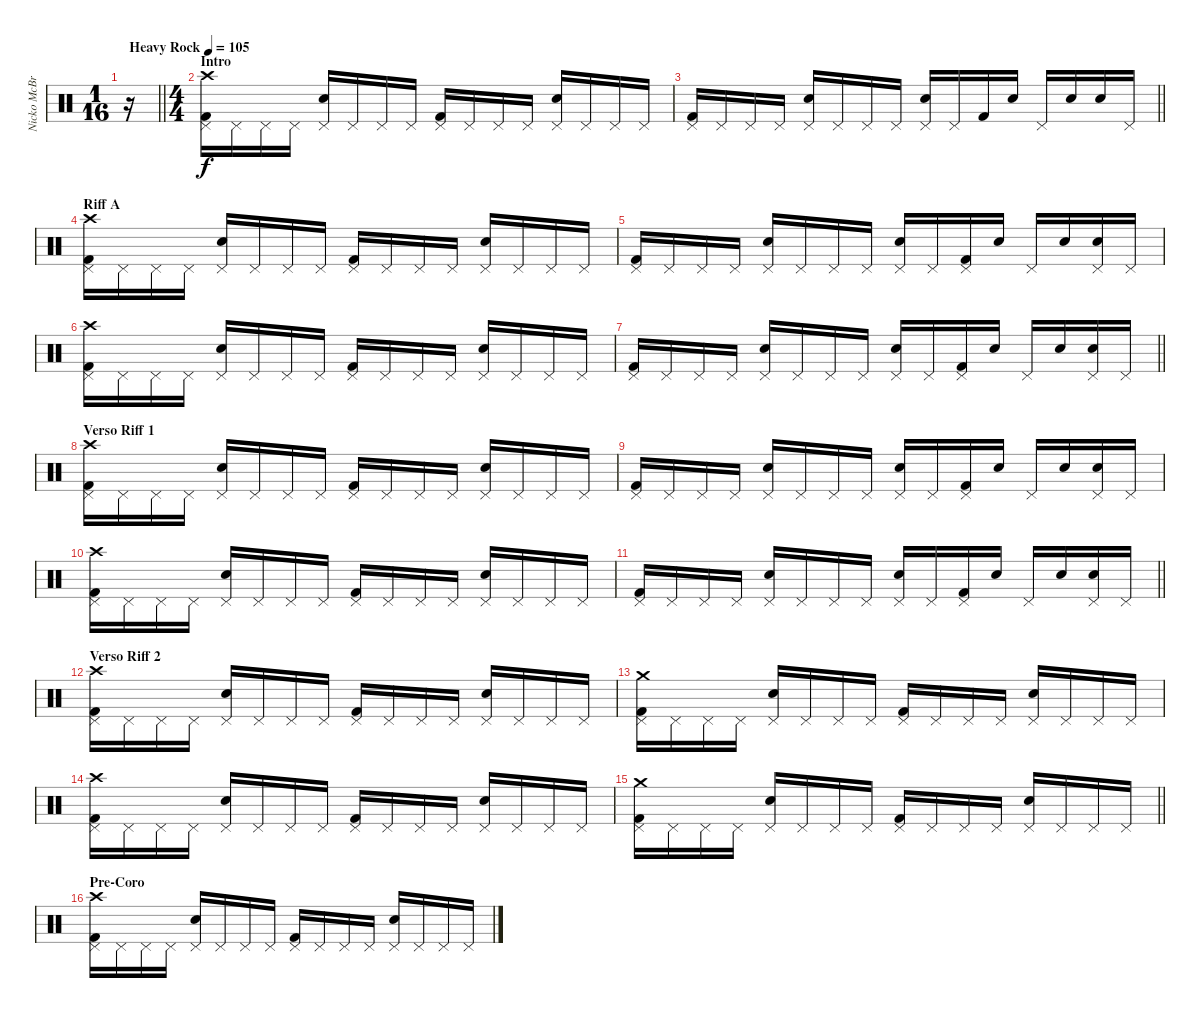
\track ("Nicko McBrain" "Nicko McBr") {instrument percussion}
\staff {score}
\articulation defaults
\ts (1 16)
\tempo (105 "Heavy Rock")
\clef neutral
\barLineRight lightlight
\ks c
r.16{dy f} |
\ts (4 4)
\section ("" "Intro")
("Kick (hit) 2" "Pedal Hi-Hat (hit)" "Crash high (hit)").16 "Pedal Hi-Hat (hit)".16 "Pedal Hi-Hat (hit)".16 "Pedal Hi-Hat (hit)".16 ("Snare (hit) 2" "Pedal Hi-Hat (hit)").16 "Pedal Hi-Hat (hit)".16 "Pedal Hi-Hat (hit)".16 "Pedal Hi-Hat (hit)".16 ("Kick (hit) 2" "Pedal Hi-Hat (hit)").16 "Pedal Hi-Hat (hit)".16 "Pedal Hi-Hat (hit)".16 "Pedal Hi-Hat (hit)".16 ("Snare (hit) 2" "Pedal Hi-Hat (hit)").16 "Pedal Hi-Hat (hit)".16 "Pedal Hi-Hat (hit)".16 "Pedal Hi-Hat (hit)".16 |
\barLineRight lightlight
("Kick (hit) 2" "Pedal Hi-Hat (hit)").16 "Pedal Hi-Hat (hit)".16 "Pedal Hi-Hat (hit)".16 "Pedal Hi-Hat (hit)".16 ("Snare (hit) 2" "Pedal Hi-Hat (hit)").16 "Pedal Hi-Hat (hit)".16 "Pedal Hi-Hat (hit)".16 "Pedal Hi-Hat (hit)".16 ("Snare (hit) 2" "Pedal Hi-Hat (hit)").16 "Pedal Hi-Hat (hit)".16 "Kick (hit) 2".16 "Snare (hit) 2".16 "Pedal Hi-Hat (hit)".16 "Snare (hit) 2".16 "Snare (hit) 2".16 "Pedal Hi-Hat (hit)".16 |
\section ("" "Riff A")
("Kick (hit) 2" "Pedal Hi-Hat (hit)" "Crash high (hit)").16 "Pedal Hi-Hat (hit)".16 "Pedal Hi-Hat (hit)".16 "Pedal Hi-Hat (hit)".16 ("Snare (hit) 2" "Pedal Hi-Hat (hit)").16 "Pedal Hi-Hat (hit)".16 "Pedal Hi-Hat (hit)".16 "Pedal Hi-Hat (hit)".16 ("Kick (hit) 2" "Pedal Hi-Hat (hit)").16 "Pedal Hi-Hat (hit)".16 "Pedal Hi-Hat (hit)".16 "Pedal Hi-Hat (hit)".16 ("Snare (hit) 2" "Pedal Hi-Hat (hit)").16 "Pedal Hi-Hat (hit)".16 "Pedal Hi-Hat (hit)".16 "Pedal Hi-Hat (hit)".16 |
("Kick (hit) 2" "Pedal Hi-Hat (hit)").16 "Pedal Hi-Hat (hit)".16 "Pedal Hi-Hat (hit)".16 "Pedal Hi-Hat (hit)".16 ("Snare (hit) 2" "Pedal Hi-Hat (hit)").16 "Pedal Hi-Hat (hit)".16 "Pedal Hi-Hat (hit)".16 "Pedal Hi-Hat (hit)".16 ("Snare (hit) 2" "Pedal Hi-Hat (hit)").16 "Pedal Hi-Hat (hit)".16 ("Kick (hit) 2" "Pedal Hi-Hat (hit)").16 "Snare (hit) 2".16 "Pedal Hi-Hat (hit)".16 "Snare (hit) 2".16 ("Snare (hit) 2" "Pedal Hi-Hat (hit)").16 "Pedal Hi-Hat (hit)".16 |
("Kick (hit) 2" "Pedal Hi-Hat (hit)" "Crash high (hit)").16 "Pedal Hi-Hat (hit)".16 "Pedal Hi-Hat (hit)".16 "Pedal Hi-Hat (hit)".16 ("Snare (hit) 2" "Pedal Hi-Hat (hit)").16 "Pedal Hi-Hat (hit)".16 "Pedal Hi-Hat (hit)".16 "Pedal Hi-Hat (hit)".16 ("Kick (hit) 2" "Pedal Hi-Hat (hit)").16 "Pedal Hi-Hat (hit)".16 "Pedal Hi-Hat (hit)".16 "Pedal Hi-Hat (hit)".16 ("Snare (hit) 2" "Pedal Hi-Hat (hit)").16 "Pedal Hi-Hat (hit)".16 "Pedal Hi-Hat (hit)".16 "Pedal Hi-Hat (hit)".16 |
\barLineRight lightlight
("Kick (hit) 2" "Pedal Hi-Hat (hit)").16 "Pedal Hi-Hat (hit)".16 "Pedal Hi-Hat (hit)".16 "Pedal Hi-Hat (hit)".16 ("Snare (hit) 2" "Pedal Hi-Hat (hit)").16 "Pedal Hi-Hat (hit)".16 "Pedal Hi-Hat (hit)".16 "Pedal Hi-Hat (hit)".16 ("Snare (hit) 2" "Pedal Hi-Hat (hit)").16 "Pedal Hi-Hat (hit)".16 ("Kick (hit) 2" "Pedal Hi-Hat (hit)").16 "Snare (hit) 2".16 "Pedal Hi-Hat (hit)".16 "Snare (hit) 2".16 ("Snare (hit) 2" "Pedal Hi-Hat (hit)").16 "Pedal Hi-Hat (hit)".16 |
\section ("" "Verso Riff 1")
("Kick (hit) 2" "Pedal Hi-Hat (hit)" "Crash high (hit)").16 "Pedal Hi-Hat (hit)".16 "Pedal Hi-Hat (hit)".16 "Pedal Hi-Hat (hit)".16 ("Snare (hit) 2" "Pedal Hi-Hat (hit)").16 "Pedal Hi-Hat (hit)".16 "Pedal Hi-Hat (hit)".16 "Pedal Hi-Hat (hit)".16 ("Kick (hit) 2" "Pedal Hi-Hat (hit)").16 "Pedal Hi-Hat (hit)".16 "Pedal Hi-Hat (hit)".16 "Pedal Hi-Hat (hit)".16 ("Snare (hit) 2" "Pedal Hi-Hat (hit)").16 "Pedal Hi-Hat (hit)".16 "Pedal Hi-Hat (hit)".16 "Pedal Hi-Hat (hit)".16 |
("Kick (hit) 2" "Pedal Hi-Hat (hit)").16 "Pedal Hi-Hat (hit)".16 "Pedal Hi-Hat (hit)".16 "Pedal Hi-Hat (hit)".16 ("Snare (hit) 2" "Pedal Hi-Hat (hit)").16 "Pedal Hi-Hat (hit)".16 "Pedal Hi-Hat (hit)".16 "Pedal Hi-Hat (hit)".16 ("Snare (hit) 2" "Pedal Hi-Hat (hit)").16 "Pedal Hi-Hat (hit)".16 ("Kick (hit) 2" "Pedal Hi-Hat (hit)").16 "Snare (hit) 2".16 "Pedal Hi-Hat (hit)".16 "Snare (hit) 2".16 ("Snare (hit) 2" "Pedal Hi-Hat (hit)").16 "Pedal Hi-Hat (hit)".16 |
("Kick (hit) 2" "Pedal Hi-Hat (hit)" "Crash high (hit)").16 "Pedal Hi-Hat (hit)".16 "Pedal Hi-Hat (hit)".16 "Pedal Hi-Hat (hit)".16 ("Snare (hit) 2" "Pedal Hi-Hat (hit)").16 "Pedal Hi-Hat (hit)".16 "Pedal Hi-Hat (hit)".16 "Pedal Hi-Hat (hit)".16 ("Kick (hit) 2" "Pedal Hi-Hat (hit)").16 "Pedal Hi-Hat (hit)".16 "Pedal Hi-Hat (hit)".16 "Pedal Hi-Hat (hit)".16 ("Snare (hit) 2" "Pedal Hi-Hat (hit)").16 "Pedal Hi-Hat (hit)".16 "Pedal Hi-Hat (hit)".16 "Pedal Hi-Hat (hit)".16 |
\barLineRight lightlight
("Kick (hit) 2" "Pedal Hi-Hat (hit)").16 "Pedal Hi-Hat (hit)".16 "Pedal Hi-Hat (hit)".16 "Pedal Hi-Hat (hit)".16 ("Snare (hit) 2" "Pedal Hi-Hat (hit)").16 "Pedal Hi-Hat (hit)".16 "Pedal Hi-Hat (hit)".16 "Pedal Hi-Hat (hit)".16 ("Snare (hit) 2" "Pedal Hi-Hat (hit)").16 "Pedal Hi-Hat (hit)".16 ("Kick (hit) 2" "Pedal Hi-Hat (hit)").16 "Snare (hit) 2".16 "Pedal Hi-Hat (hit)".16 "Snare (hit) 2".16 ("Snare (hit) 2" "Pedal Hi-Hat (hit)").16 "Pedal Hi-Hat (hit)".16 |
\section ("" "Verso Riff 2")
("Kick (hit) 2" "Pedal Hi-Hat (hit)" "Crash high (hit)").16 "Pedal Hi-Hat (hit)".16 "Pedal Hi-Hat (hit)".16 "Pedal Hi-Hat (hit)".16 ("Snare (hit) 2" "Pedal Hi-Hat (hit)").16 "Pedal Hi-Hat (hit)".16 "Pedal Hi-Hat (hit)".16 "Pedal Hi-Hat (hit)".16 ("Kick (hit) 2" "Pedal Hi-Hat (hit)").16 "Pedal Hi-Hat (hit)".16 "Pedal Hi-Hat (hit)".16 "Pedal Hi-Hat (hit)".16 ("Snare (hit) 2" "Pedal Hi-Hat (hit)").16 "Pedal Hi-Hat (hit)".16 "Pedal Hi-Hat (hit)".16 "Pedal Hi-Hat (hit)".16 |
("Kick (hit) 2" "Pedal Hi-Hat (hit)" "Crash medium (hit)").16 "Pedal Hi-Hat (hit)".16 "Pedal Hi-Hat (hit)".16 "Pedal Hi-Hat (hit)".16 ("Snare (hit) 2" "Pedal Hi-Hat (hit)").16 "Pedal Hi-Hat (hit)".16 "Pedal Hi-Hat (hit)".16 "Pedal Hi-Hat (hit)".16 ("Kick (hit) 2" "Pedal Hi-Hat (hit)").16 "Pedal Hi-Hat (hit)".16 "Pedal Hi-Hat (hit)".16 "Pedal Hi-Hat (hit)".16 ("Snare (hit) 2" "Pedal Hi-Hat (hit)").16 "Pedal Hi-Hat (hit)".16 "Pedal Hi-Hat (hit)".16 "Pedal Hi-Hat (hit)".16 |
("Kick (hit) 2" "Pedal Hi-Hat (hit)" "Crash high (hit)").16 "Pedal Hi-Hat (hit)".16 "Pedal Hi-Hat (hit)".16 "Pedal Hi-Hat (hit)".16 ("Snare (hit) 2" "Pedal Hi-Hat (hit)").16 "Pedal Hi-Hat (hit)".16 "Pedal Hi-Hat (hit)".16 "Pedal Hi-Hat (hit)".16 ("Kick (hit) 2" "Pedal Hi-Hat (hit)").16 "Pedal Hi-Hat (hit)".16 "Pedal Hi-Hat (hit)".16 "Pedal Hi-Hat (hit)".16 ("Snare (hit) 2" "Pedal Hi-Hat (hit)").16 "Pedal Hi-Hat (hit)".16 "Pedal Hi-Hat (hit)".16 "Pedal Hi-Hat (hit)".16 |
\barLineRight lightlight
("Kick (hit) 2" "Pedal Hi-Hat (hit)" "Crash medium (hit)").16 "Pedal Hi-Hat (hit)".16 "Pedal Hi-Hat (hit)".16 "Pedal Hi-Hat (hit)".16 ("Snare (hit) 2" "Pedal Hi-Hat (hit)").16 "Pedal Hi-Hat (hit)".16 "Pedal Hi-Hat (hit)".16 "Pedal Hi-Hat (hit)".16 ("Kick (hit) 2" "Pedal Hi-Hat (hit)").16 "Pedal Hi-Hat (hit)".16 "Pedal Hi-Hat (hit)".16 "Pedal Hi-Hat (hit)".16 ("Snare (hit) 2" "Pedal Hi-Hat (hit)").16 "Pedal Hi-Hat (hit)".16 "Pedal Hi-Hat (hit)".16 "Pedal Hi-Hat (hit)".16 |
\section ("" "Pre-Coro")
("Kick (hit) 2" "Pedal Hi-Hat (hit)" "Crash high (hit)").16 "Pedal Hi-Hat (hit)".16 "Pedal Hi-Hat (hit)".16 "Pedal Hi-Hat (hit)".16 ("Snare (hit) 2" "Pedal Hi-Hat (hit)").16 "Pedal Hi-Hat (hit)".16 "Pedal Hi-Hat (hit)".16 "Pedal Hi-Hat (hit)".16 ("Kick (hit) 2" "Pedal Hi-Hat (hit)").16 "Pedal Hi-Hat (hit)".16 "Pedal Hi-Hat (hit)".16 "Pedal Hi-Hat (hit)".16 ("Snare (hit) 2" "Pedal Hi-Hat (hit)").16 "Pedal Hi-Hat (hit)".16 "Pedal Hi-Hat (hit)".16 "Pedal Hi-Hat (hit)".16
